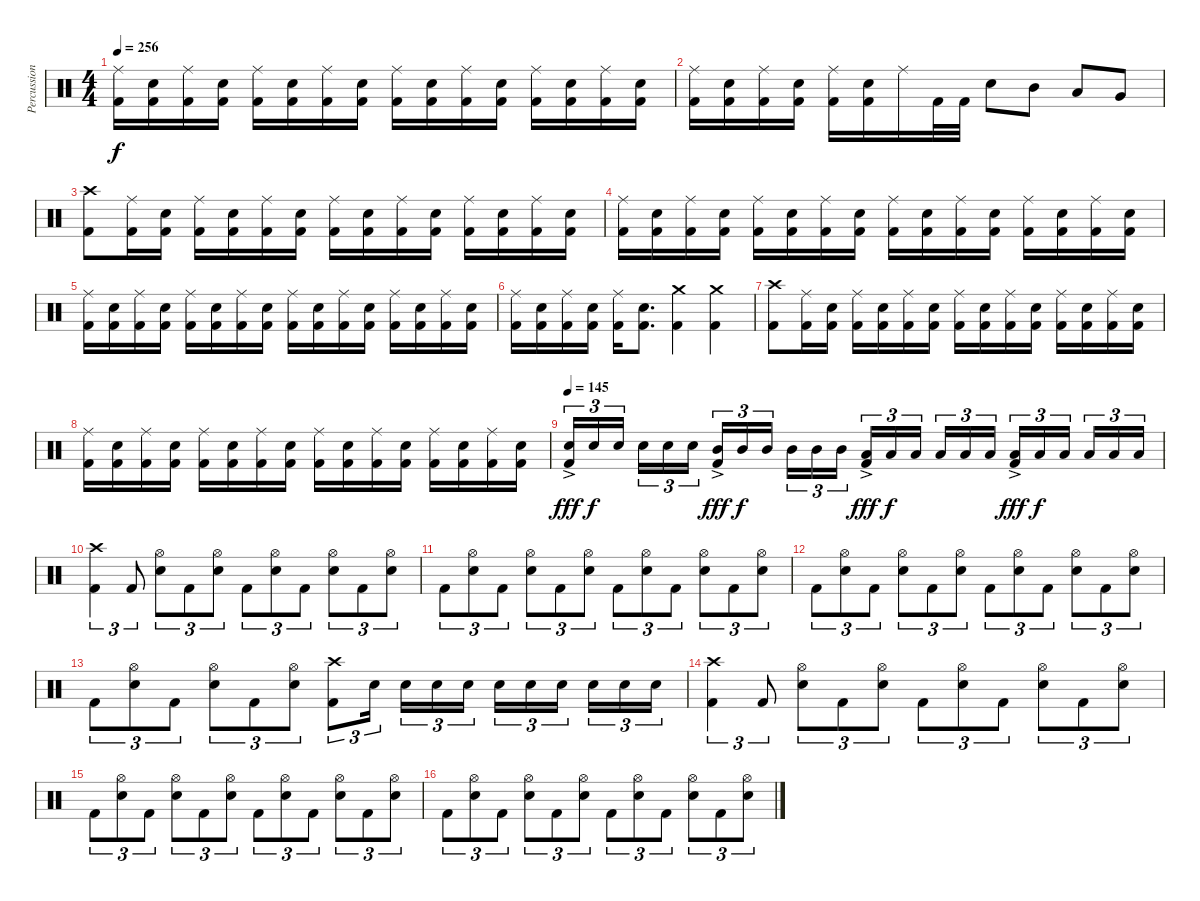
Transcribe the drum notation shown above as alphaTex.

\track ("Percussion" "Percussion") {instrument percussion}
\staff {score}
\articulation defaults
\ts (4 4)
\tempo 256
\clef neutral
\ks c
("Ride (middle)" "Kick (hit) 2").16{dy f} ("Snare (hit) 2" "Kick (hit) 2").16 ("Ride (middle)" "Kick (hit) 2").16 ("Snare (hit) 2" "Kick (hit) 2").16 ("Ride (middle)" "Kick (hit) 2").16 ("Snare (hit) 2" "Kick (hit) 2").16 ("Ride (middle)" "Kick (hit) 2").16 ("Snare (hit) 2" "Kick (hit) 2").16 ("Ride (middle)" "Kick (hit) 2").16 ("Snare (hit) 2" "Kick (hit) 2").16 ("Ride (middle)" "Kick (hit) 2").16 ("Snare (hit) 2" "Kick (hit) 2").16 ("Ride (middle)" "Kick (hit) 2").16 ("Snare (hit) 2" "Kick (hit) 2").16 ("Ride (middle)" "Kick (hit) 2").16 ("Snare (hit) 2" "Kick (hit) 2").16 |
("Ride (middle)" "Kick (hit) 2").16 ("Snare (hit) 2" "Kick (hit) 2").16 ("Ride (middle)" "Kick (hit) 2").16 ("Snare (hit) 2" "Kick (hit) 2").16 ("Ride (middle)" "Kick (hit) 2").16 ("Snare (hit) 2" "Kick (hit) 2").16 "Ride (middle)".16 "Kick (hit) 2".32 "Kick (hit) 2".32 "Snare (hit) 2".8 "Mid Tom (hit)".8 "Low Tom (hit)".8 "Very Low Tom (hit)".8 |
("Crash high (hit)" "Kick (hit) 2").8 ("Ride (middle)" "Kick (hit) 2").16 ("Snare (hit) 2" "Kick (hit) 2").16 ("Ride (middle)" "Kick (hit) 2").16 ("Snare (hit) 2" "Kick (hit) 2").16 ("Ride (middle)" "Kick (hit) 2").16 ("Snare (hit) 2" "Kick (hit) 2").16 ("Ride (middle)" "Kick (hit) 2").16 ("Snare (hit) 2" "Kick (hit) 2").16 ("Ride (middle)" "Kick (hit) 2").16 ("Snare (hit) 2" "Kick (hit) 2").16 ("Ride (middle)" "Kick (hit) 2").16 ("Kick (hit) 2" "Snare (hit) 2").16 ("Ride (middle)" "Kick (hit) 2").16 ("Kick (hit) 2" "Snare (hit) 2").16 |
("Ride (middle)" "Kick (hit) 2").16 ("Snare (hit) 2" "Kick (hit) 2").16 ("Ride (middle)" "Kick (hit) 2").16 ("Snare (hit) 2" "Kick (hit) 2").16 ("Ride (middle)" "Kick (hit) 2").16 ("Snare (hit) 2" "Kick (hit) 2").16 ("Ride (middle)" "Kick (hit) 2").16 ("Snare (hit) 2" "Kick (hit) 2").16 ("Ride (middle)" "Kick (hit) 2").16 ("Snare (hit) 2" "Kick (hit) 2").16 ("Ride (middle)" "Kick (hit) 2").16 ("Snare (hit) 2" "Kick (hit) 2").16 ("Ride (middle)" "Kick (hit) 2").16 ("Snare (hit) 2" "Kick (hit) 2").16 ("Ride (middle)" "Kick (hit) 2").16 ("Snare (hit) 2" "Kick (hit) 2").16 |
("Ride (middle)" "Kick (hit) 2").16 ("Snare (hit) 2" "Kick (hit) 2").16 ("Ride (middle)" "Kick (hit) 2").16 ("Snare (hit) 2" "Kick (hit) 2").16 ("Ride (middle)" "Kick (hit) 2").16 ("Snare (hit) 2" "Kick (hit) 2").16 ("Ride (middle)" "Kick (hit) 2").16 ("Snare (hit) 2" "Kick (hit) 2").16 ("Ride (middle)" "Kick (hit) 2").16 ("Snare (hit) 2" "Kick (hit) 2").16 ("Ride (middle)" "Kick (hit) 2").16 ("Snare (hit) 2" "Kick (hit) 2").16 ("Ride (middle)" "Kick (hit) 2").16 ("Snare (hit) 2" "Kick (hit) 2").16 ("Ride (middle)" "Kick (hit) 2").16 ("Snare (hit) 2" "Kick (hit) 2").16 |
("Ride (middle)" "Kick (hit) 2").16 ("Snare (hit) 2" "Kick (hit) 2").16 ("Ride (middle)" "Kick (hit) 2").16 ("Snare (hit) 2" "Kick (hit) 2").16 ("Ride (middle)" "Kick (hit) 2").16 ("Snare (hit) 2" "Kick (hit) 2").8{d} ("Crash medium (hit)" "Kick (hit) 2").4 ("Crash medium (hit)" "Kick (hit) 2").4 |
("Crash high (hit)" "Kick (hit) 2").8 ("Ride (middle)" "Kick (hit) 2").16 ("Snare (hit) 2" "Kick (hit) 2").16 ("Ride (middle)" "Kick (hit) 2").16 ("Snare (hit) 2" "Kick (hit) 2").16 ("Ride (middle)" "Kick (hit) 2").16 ("Snare (hit) 2" "Kick (hit) 2").16 ("Ride (middle)" "Kick (hit) 2").16 ("Snare (hit) 2" "Kick (hit) 2").16 ("Ride (middle)" "Kick (hit) 2").16 ("Snare (hit) 2" "Kick (hit) 2").16 ("Ride (middle)" "Kick (hit) 2").16 ("Kick (hit) 2" "Snare (hit) 2").16 ("Ride (middle)" "Kick (hit) 2").16 ("Kick (hit) 2" "Snare (hit) 2").16 |
("Ride (middle)" "Kick (hit) 2").16 ("Snare (hit) 2" "Kick (hit) 2").16 ("Ride (middle)" "Kick (hit) 2").16 ("Snare (hit) 2" "Kick (hit) 2").16 ("Ride (middle)" "Kick (hit) 2").16 ("Snare (hit) 2" "Kick (hit) 2").16 ("Ride (middle)" "Kick (hit) 2").16 ("Snare (hit) 2" "Kick (hit) 2").16 ("Ride (middle)" "Kick (hit) 2").16 ("Snare (hit) 2" "Kick (hit) 2").16 ("Ride (middle)" "Kick (hit) 2").16 ("Snare (hit) 2" "Kick (hit) 2").16 ("Ride (middle)" "Kick (hit) 2").16 ("Snare (hit) 2" "Kick (hit) 2").16 ("Ride (middle)" "Kick (hit) 2").16 ("Snare (hit) 2" "Kick (hit) 2").16 |
\tempo 145
("Kick (hit) 2" "Snare (hit) 2"{ac}).16{tu (3 2) dy fff} "Snare (hit) 2".16{tu (3 2) dy f} "Snare (hit) 2".16{tu (3 2) beam splitsecondary} "Snare (hit) 2".16{tu (3 2)} "Snare (hit) 2".16{tu (3 2)} "Snare (hit) 2".16{tu (3 2)} ("Mid Tom (hit)"{ac} "Kick (hit) 2").16{tu (3 2) dy fff} "Mid Tom (hit)".16{tu (3 2) dy f} "Mid Tom (hit)".16{tu (3 2) beam splitsecondary} "Mid Tom (hit)".16{tu (3 2)} "Mid Tom (hit)".16{tu (3 2)} "Mid Tom (hit)".16{tu (3 2)} ("Low Tom (hit)"{ac} "Kick (hit) 2").16{tu (3 2) dy fff} "Low Tom (hit)".16{tu (3 2) dy f} "Low Tom (hit)".16{tu (3 2) beam splitsecondary} "Low Tom (hit)".16{tu (3 2)} "Low Tom (hit)".16{tu (3 2)} "Low Tom (hit)".16{tu (3 2)} ("Low Floor Tom (hit)"{ac} "Kick (hit) 2").16{tu (3 2) dy fff} "Low Floor Tom (hit)".16{tu (3 2) dy f} "Low Floor Tom (hit)".16{tu (3 2) beam splitsecondary} "Low Floor Tom (hit)".16{tu (3 2)} "Low Floor Tom (hit)".16{tu (3 2)} "Low Floor Tom (hit)".16{tu (3 2)} |
("Crash high (hit)" "Kick (hit) 2").4{tu (3 2)} "Kick (hit) 2".8{tu (3 2)} ("Hi-Hat (open)" "Snare (hit) 2").8{tu (3 2)} "Kick (hit) 2".8{tu (3 2)} ("Hi-Hat (open)" "Snare (hit) 2").8{tu (3 2)} "Kick (hit) 2".8{tu (3 2)} ("Hi-Hat (open)" "Snare (hit) 2").8{tu (3 2)} "Kick (hit) 2".8{tu (3 2)} ("Hi-Hat (open)" "Snare (hit) 2").8{tu (3 2)} "Kick (hit) 2".8{tu (3 2)} ("Hi-Hat (open)" "Snare (hit) 2").8{tu (3 2)} |
"Kick (hit) 2".8{tu (3 2)} ("Hi-Hat (open)" "Snare (hit) 2").8{tu (3 2)} "Kick (hit) 2".8{tu (3 2)} ("Hi-Hat (open)" "Snare (hit) 2").8{tu (3 2)} "Kick (hit) 2".8{tu (3 2)} ("Hi-Hat (open)" "Snare (hit) 2").8{tu (3 2)} "Kick (hit) 2".8{tu (3 2)} ("Hi-Hat (open)" "Snare (hit) 2").8{tu (3 2)} "Kick (hit) 2".8{tu (3 2)} ("Hi-Hat (open)" "Snare (hit) 2").8{tu (3 2)} "Kick (hit) 2".8{tu (3 2)} ("Hi-Hat (open)" "Snare (hit) 2").8{tu (3 2)} |
"Kick (hit) 2".8{tu (3 2)} ("Hi-Hat (open)" "Snare (hit) 2").8{tu (3 2)} "Kick (hit) 2".8{tu (3 2)} ("Hi-Hat (open)" "Snare (hit) 2").8{tu (3 2)} "Kick (hit) 2".8{tu (3 2)} ("Hi-Hat (open)" "Snare (hit) 2").8{tu (3 2)} "Kick (hit) 2".8{tu (3 2)} ("Hi-Hat (open)" "Snare (hit) 2").8{tu (3 2)} "Kick (hit) 2".8{tu (3 2)} ("Hi-Hat (open)" "Snare (hit) 2").8{tu (3 2)} "Kick (hit) 2".8{tu (3 2)} ("Hi-Hat (open)" "Snare (hit) 2").8{tu (3 2)} |
"Kick (hit) 2".8{tu (3 2)} ("Hi-Hat (open)" "Snare (hit) 2").8{tu (3 2)} "Kick (hit) 2".8{tu (3 2)} ("Hi-Hat (open)" "Snare (hit) 2").8{tu (3 2)} "Kick (hit) 2".8{tu (3 2)} ("Hi-Hat (open)" "Snare (hit) 2").8{tu (3 2)} ("Crash high (hit)" "Kick (hit) 2").8{tu (3 2)} "Snare (hit) 2".16{tu (3 2) beam splitsecondary} "Snare (hit) 2".16{tu (3 2)} "Snare (hit) 2".16{tu (3 2)} "Snare (hit) 2".16{tu (3 2)} "Snare (hit) 2".16{tu (3 2)} "Snare (hit) 2".16{tu (3 2)} "Snare (hit) 2".16{tu (3 2) beam splitsecondary} "Snare (hit) 2".16{tu (3 2)} "Snare (hit) 2".16{tu (3 2)} "Snare (hit) 2".16{tu (3 2)} |
("Crash high (hit)" "Kick (hit) 2").4{tu (3 2)} "Kick (hit) 2".8{tu (3 2)} ("Hi-Hat (open)" "Snare (hit) 2").8{tu (3 2)} "Kick (hit) 2".8{tu (3 2)} ("Hi-Hat (open)" "Snare (hit) 2").8{tu (3 2)} "Kick (hit) 2".8{tu (3 2)} ("Hi-Hat (open)" "Snare (hit) 2").8{tu (3 2)} "Kick (hit) 2".8{tu (3 2)} ("Hi-Hat (open)" "Snare (hit) 2").8{tu (3 2)} "Kick (hit) 2".8{tu (3 2)} ("Hi-Hat (open)" "Snare (hit) 2").8{tu (3 2)} |
"Kick (hit) 2".8{tu (3 2)} ("Hi-Hat (open)" "Snare (hit) 2").8{tu (3 2)} "Kick (hit) 2".8{tu (3 2)} ("Hi-Hat (open)" "Snare (hit) 2").8{tu (3 2)} "Kick (hit) 2".8{tu (3 2)} ("Hi-Hat (open)" "Snare (hit) 2").8{tu (3 2)} "Kick (hit) 2".8{tu (3 2)} ("Hi-Hat (open)" "Snare (hit) 2").8{tu (3 2)} "Kick (hit) 2".8{tu (3 2)} ("Hi-Hat (open)" "Snare (hit) 2").8{tu (3 2)} "Kick (hit) 2".8{tu (3 2)} ("Hi-Hat (open)" "Snare (hit) 2").8{tu (3 2)} |
"Kick (hit) 2".8{tu (3 2)} ("Hi-Hat (open)" "Snare (hit) 2").8{tu (3 2)} "Kick (hit) 2".8{tu (3 2)} ("Hi-Hat (open)" "Snare (hit) 2").8{tu (3 2)} "Kick (hit) 2".8{tu (3 2)} ("Hi-Hat (open)" "Snare (hit) 2").8{tu (3 2)} "Kick (hit) 2".8{tu (3 2)} ("Hi-Hat (open)" "Snare (hit) 2").8{tu (3 2)} "Kick (hit) 2".8{tu (3 2)} ("Hi-Hat (open)" "Snare (hit) 2").8{tu (3 2)} "Kick (hit) 2".8{tu (3 2)} ("Hi-Hat (open)" "Snare (hit) 2").8{tu (3 2)}
